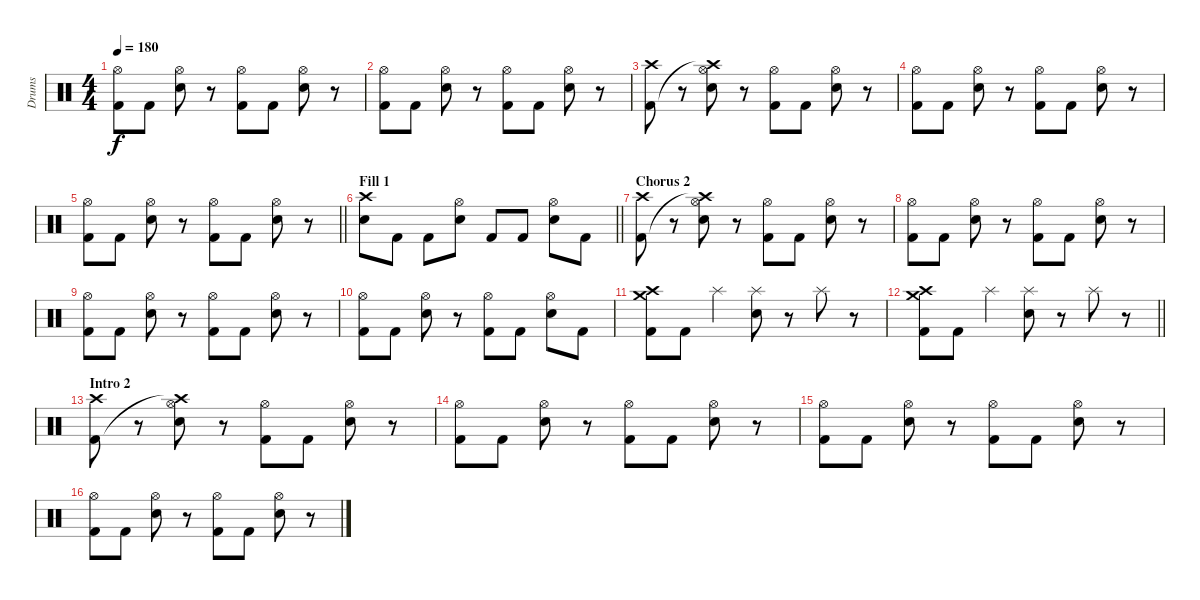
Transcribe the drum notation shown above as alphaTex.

\track ("Drums" "Drums") {instrument percussion}
\staff {score}
\articulation defaults
\ts (4 4)
\tempo 180
\clef neutral
\ks c
("Hi-Hat (open)" "Kick (hit) 2").8{dy f} "Kick (hit) 2".8 ("Hi-Hat (open)" "Snare (hit) 2").8 r.8 ("Hi-Hat (open)" "Kick (hit) 2").8 "Kick (hit) 2".8 ("Hi-Hat (open)" "Snare (hit) 2").8 r.8 |
("Hi-Hat (open)" "Kick (hit) 2").8 "Kick (hit) 2".8 ("Hi-Hat (open)" "Snare (hit) 2").8 r.8 ("Hi-Hat (open)" "Kick (hit) 2").8 "Kick (hit) 2".8 ("Hi-Hat (open)" "Snare (hit) 2").8 r.8 |
("Crash high (hit)" "Kick (hit) 2").8 r.8 ("Hi-Hat (open)" "Crash high (hit)"{t} "Snare (hit) 2").8 r.8 ("Hi-Hat (open)" "Kick (hit) 2").8 "Kick (hit) 2".8 ("Hi-Hat (open)" "Snare (hit) 2").8 r.8 |
("Hi-Hat (open)" "Kick (hit) 2").8 "Kick (hit) 2".8 ("Hi-Hat (open)" "Snare (hit) 2").8 r.8 ("Hi-Hat (open)" "Kick (hit) 2").8 "Kick (hit) 2".8 ("Hi-Hat (open)" "Snare (hit) 2").8 r.8 |
\barLineRight lightlight
("Hi-Hat (open)" "Kick (hit) 2").8 "Kick (hit) 2".8 ("Hi-Hat (open)" "Snare (hit) 2").8 r.8 ("Hi-Hat (open)" "Kick (hit) 2").8 "Kick (hit) 2".8 ("Hi-Hat (open)" "Snare (hit) 2").8 r.8 |
\section ("" "Fill 1")
\barLineRight lightlight
("Crash high (hit)" "Snare (hit) 2").8 "Kick (hit) 2".8 "Kick (hit) 2".8 ("Hi-Hat (open)" "Snare (hit) 2").8 "Kick (hit) 2".8 "Kick (hit) 2".8 ("Hi-Hat (open)" "Snare (hit) 2").8 "Kick (hit) 2".8 |
\section ("" "Chorus 2")
("Crash high (hit)" "Kick (hit) 2").8 r.8 ("Hi-Hat (open)" "Crash high (hit)"{t} "Snare (hit) 2").8 r.8 ("Hi-Hat (open)" "Kick (hit) 2").8 "Kick (hit) 2".8 ("Hi-Hat (open)" "Snare (hit) 2").8 r.8 |
("Hi-Hat (open)" "Kick (hit) 2").8 "Kick (hit) 2".8 ("Hi-Hat (open)" "Snare (hit) 2").8 r.8 ("Hi-Hat (open)" "Kick (hit) 2").8 "Kick (hit) 2".8 ("Hi-Hat (open)" "Snare (hit) 2").8 r.8 |
("Hi-Hat (open)" "Kick (hit) 2").8 "Kick (hit) 2".8 ("Hi-Hat (open)" "Snare (hit) 2").8 r.8 ("Hi-Hat (open)" "Kick (hit) 2").8 "Kick (hit) 2".8 ("Hi-Hat (open)" "Snare (hit) 2").8 r.8 |
("Hi-Hat (open)" "Kick (hit) 2").8 "Kick (hit) 2".8 ("Hi-Hat (open)" "Snare (hit) 2").8 r.8 ("Hi-Hat (open)" "Kick (hit) 2").8 "Kick (hit) 2".8 ("Hi-Hat (open)" "Snare (hit) 2").8 "Kick (hit) 2".8 |
("Crash medium (hit)" "Crash high (hit)" "Kick (hit) 2").8 "Kick (hit) 2".8 "Splash (hit)".4 ("Splash (hit)" "Snare (hit) 2").8 r.8 "Splash (hit)".8 r.8 |
\barLineRight lightlight
("Crash medium (hit)" "Crash high (hit)" "Kick (hit) 2").8 "Kick (hit) 2".8 "Splash (hit)".4 ("Splash (hit)" "Snare (hit) 2").8 r.8 "Splash (hit)".8 r.8 |
\section ("" "Intro 2")
("Crash high (hit)" "Kick (hit) 2").8 r.8 ("Hi-Hat (open)" "Crash high (hit)"{t} "Snare (hit) 2").8 r.8 ("Hi-Hat (open)" "Kick (hit) 2").8 "Kick (hit) 2".8 ("Hi-Hat (open)" "Snare (hit) 2").8 r.8 |
("Hi-Hat (open)" "Kick (hit) 2").8 "Kick (hit) 2".8 ("Hi-Hat (open)" "Snare (hit) 2").8 r.8 ("Hi-Hat (open)" "Kick (hit) 2").8 "Kick (hit) 2".8 ("Hi-Hat (open)" "Snare (hit) 2").8 r.8 |
("Hi-Hat (open)" "Kick (hit) 2").8 "Kick (hit) 2".8 ("Hi-Hat (open)" "Snare (hit) 2").8 r.8 ("Hi-Hat (open)" "Kick (hit) 2").8 "Kick (hit) 2".8 ("Hi-Hat (open)" "Snare (hit) 2").8 r.8 |
("Hi-Hat (open)" "Kick (hit) 2").8 "Kick (hit) 2".8 ("Hi-Hat (open)" "Snare (hit) 2").8 r.8 ("Hi-Hat (open)" "Kick (hit) 2").8 "Kick (hit) 2".8 ("Hi-Hat (open)" "Snare (hit) 2").8 r.8
